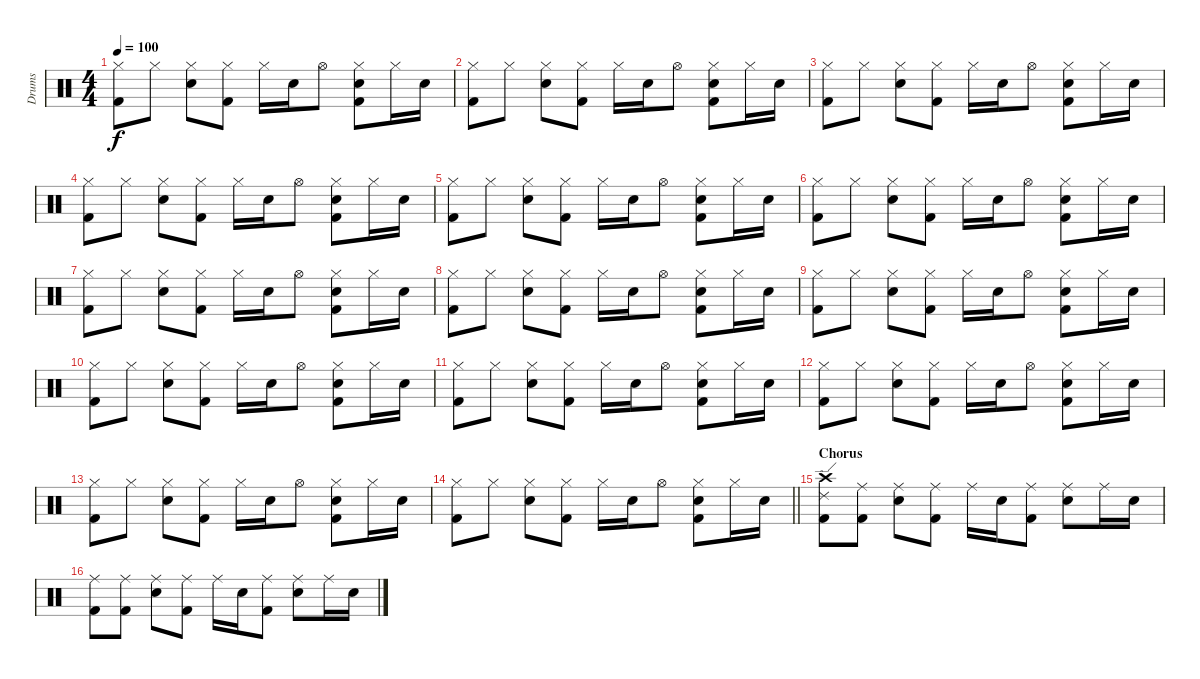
\track ("Drums" "Drums") {instrument percussion}
\staff {score}
\articulation defaults
\ts (4 4)
\tempo 100
\clef neutral
\ks c
("Hi-Hat (closed)" "Kick (hit) 2").8{dy f} "Hi-Hat (closed)".8 ("Electric Snare (hit)" "Hi-Hat (closed)").8 ("Hi-Hat (closed)" "Kick (hit) 2").8 "Hi-Hat (closed)".16 "Electric Snare (hit)".16 "Hi-Hat (open)".8 ("Electric Snare (hit)" "Hi-Hat (closed)" "Kick (hit) 2").8 "Hi-Hat (closed)".16 "Electric Snare (hit)".16 |
("Hi-Hat (closed)" "Kick (hit) 2").8 "Hi-Hat (closed)".8 ("Electric Snare (hit)" "Hi-Hat (closed)").8 ("Hi-Hat (closed)" "Kick (hit) 2").8 "Hi-Hat (closed)".16 "Electric Snare (hit)".16 "Hi-Hat (open)".8 ("Electric Snare (hit)" "Hi-Hat (closed)" "Kick (hit) 2").8 "Hi-Hat (closed)".16 "Electric Snare (hit)".16 |
("Hi-Hat (closed)" "Kick (hit) 2").8 "Hi-Hat (closed)".8 ("Electric Snare (hit)" "Hi-Hat (closed)").8 ("Hi-Hat (closed)" "Kick (hit) 2").8 "Hi-Hat (closed)".16 "Electric Snare (hit)".16 "Hi-Hat (open)".8 ("Electric Snare (hit)" "Hi-Hat (closed)" "Kick (hit) 2").8 "Hi-Hat (closed)".16 "Electric Snare (hit)".16 |
("Hi-Hat (closed)" "Kick (hit) 2").8 "Hi-Hat (closed)".8 ("Electric Snare (hit)" "Hi-Hat (closed)").8 ("Hi-Hat (closed)" "Kick (hit) 2").8 "Hi-Hat (closed)".16 "Electric Snare (hit)".16 "Hi-Hat (open)".8 ("Electric Snare (hit)" "Hi-Hat (closed)" "Kick (hit) 2").8 "Hi-Hat (closed)".16 "Electric Snare (hit)".16 |
("Hi-Hat (closed)" "Kick (hit) 2").8 "Hi-Hat (closed)".8 ("Electric Snare (hit)" "Hi-Hat (closed)").8 ("Hi-Hat (closed)" "Kick (hit) 2").8 "Hi-Hat (closed)".16 "Electric Snare (hit)".16 "Hi-Hat (open)".8 ("Electric Snare (hit)" "Hi-Hat (closed)" "Kick (hit) 2").8 "Hi-Hat (closed)".16 "Electric Snare (hit)".16 |
("Hi-Hat (closed)" "Kick (hit) 2").8 "Hi-Hat (closed)".8 ("Electric Snare (hit)" "Hi-Hat (closed)").8 ("Hi-Hat (closed)" "Kick (hit) 2").8 "Hi-Hat (closed)".16 "Electric Snare (hit)".16 "Hi-Hat (open)".8 ("Electric Snare (hit)" "Hi-Hat (closed)" "Kick (hit) 2").8 "Hi-Hat (closed)".16 "Electric Snare (hit)".16 |
("Hi-Hat (closed)" "Kick (hit) 2").8 "Hi-Hat (closed)".8 ("Electric Snare (hit)" "Hi-Hat (closed)").8 ("Hi-Hat (closed)" "Kick (hit) 2").8 "Hi-Hat (closed)".16 "Electric Snare (hit)".16 "Hi-Hat (open)".8 ("Electric Snare (hit)" "Hi-Hat (closed)" "Kick (hit) 2").8 "Hi-Hat (closed)".16 "Electric Snare (hit)".16 |
("Hi-Hat (closed)" "Kick (hit) 2").8 "Hi-Hat (closed)".8 ("Electric Snare (hit)" "Hi-Hat (closed)").8 ("Hi-Hat (closed)" "Kick (hit) 2").8 "Hi-Hat (closed)".16 "Electric Snare (hit)".16 "Hi-Hat (open)".8 ("Electric Snare (hit)" "Hi-Hat (closed)" "Kick (hit) 2").8 "Hi-Hat (closed)".16 "Electric Snare (hit)".16 |
("Hi-Hat (closed)" "Kick (hit) 2").8 "Hi-Hat (closed)".8 ("Electric Snare (hit)" "Hi-Hat (closed)").8 ("Hi-Hat (closed)" "Kick (hit) 2").8 "Hi-Hat (closed)".16 "Electric Snare (hit)".16 "Hi-Hat (open)".8 ("Electric Snare (hit)" "Hi-Hat (closed)" "Kick (hit) 2").8 "Hi-Hat (closed)".16 "Electric Snare (hit)".16 |
("Hi-Hat (closed)" "Kick (hit) 2").8 "Hi-Hat (closed)".8 ("Electric Snare (hit)" "Hi-Hat (closed)").8 ("Hi-Hat (closed)" "Kick (hit) 2").8 "Hi-Hat (closed)".16 "Electric Snare (hit)".16 "Hi-Hat (open)".8 ("Electric Snare (hit)" "Hi-Hat (closed)" "Kick (hit) 2").8 "Hi-Hat (closed)".16 "Electric Snare (hit)".16 |
("Hi-Hat (closed)" "Kick (hit) 2").8 "Hi-Hat (closed)".8 ("Electric Snare (hit)" "Hi-Hat (closed)").8 ("Hi-Hat (closed)" "Kick (hit) 2").8 "Hi-Hat (closed)".16 "Electric Snare (hit)".16 "Hi-Hat (open)".8 ("Electric Snare (hit)" "Hi-Hat (closed)" "Kick (hit) 2").8 "Hi-Hat (closed)".16 "Electric Snare (hit)".16 |
("Hi-Hat (closed)" "Kick (hit) 2").8 "Hi-Hat (closed)".8 ("Electric Snare (hit)" "Hi-Hat (closed)").8 ("Hi-Hat (closed)" "Kick (hit) 2").8 "Hi-Hat (closed)".16 "Electric Snare (hit)".16 "Hi-Hat (open)".8 ("Electric Snare (hit)" "Hi-Hat (closed)" "Kick (hit) 2").8 "Hi-Hat (closed)".16 "Electric Snare (hit)".16 |
("Hi-Hat (closed)" "Kick (hit) 2").8 "Hi-Hat (closed)".8 ("Electric Snare (hit)" "Hi-Hat (closed)").8 ("Hi-Hat (closed)" "Kick (hit) 2").8 "Hi-Hat (closed)".16 "Electric Snare (hit)".16 "Hi-Hat (open)".8 ("Electric Snare (hit)" "Hi-Hat (closed)" "Kick (hit) 2").8 "Hi-Hat (closed)".16 "Electric Snare (hit)".16 |
\barLineRight lightlight
("Hi-Hat (closed)" "Kick (hit) 2").8 "Hi-Hat (closed)".8 ("Electric Snare (hit)" "Hi-Hat (closed)").8 ("Hi-Hat (closed)" "Kick (hit) 2").8 "Hi-Hat (closed)".16 "Electric Snare (hit)".16 "Hi-Hat (open)".8 ("Electric Snare (hit)" "Hi-Hat (closed)" "Kick (hit) 2").8 "Hi-Hat (closed)".16 "Electric Snare (hit)".16 |
\section ("" "Chorus")
("Crash high (hit)" "Ride (edge) 2" "Kick (hit) 2").8 ("Ride (middle)" "Kick (hit) 2").8 ("Electric Snare (hit)" "Ride (middle)").8 ("Ride (middle)" "Kick (hit) 2").8 "Ride (middle)".16 "Electric Snare (hit)".16 ("Ride (middle)" "Kick (hit) 2").8 ("Electric Snare (hit)" "Ride (middle)").8 "Ride (middle)".16 "Electric Snare (hit)".16 |
("Ride (middle)" "Kick (hit) 2").8 ("Ride (middle)" "Kick (hit) 2").8 ("Electric Snare (hit)" "Ride (middle)").8 ("Ride (middle)" "Kick (hit) 2").8 "Ride (middle)".16 "Electric Snare (hit)".16 ("Ride (middle)" "Kick (hit) 2").8 ("Electric Snare (hit)" "Ride (middle)").8 "Ride (middle)".16 "Electric Snare (hit)".16
